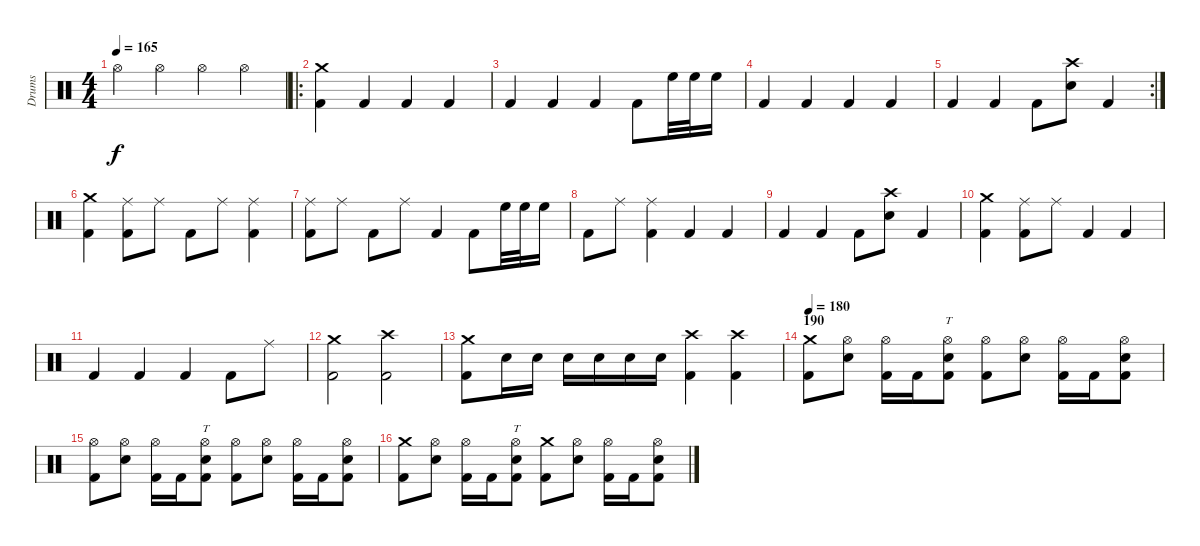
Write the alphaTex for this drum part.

\track ("Drums" "Drums") {instrument percussion}
\staff {score}
\articulation defaults
\ts (4 4)
\tempo 165
\clef neutral
\ks c "Hi-Hat (open)".4{dy f} "Hi-Hat (open)".4 "Hi-Hat (open)".4 "Hi-Hat (open)".4
|
\ro
("Crash medium (hit)" "Kick (hit) 2").4 "Kick (hit) 2".4 "Kick (hit) 2".4 "Kick (hit) 2".4 |
"Kick (hit) 2".4 "Kick (hit) 2".4 "Kick (hit) 2".4 "Kick (hit) 2".8 "High Floor Tom (hit)".32 "High Floor Tom (hit)".32 "High Floor Tom (hit)".16 |
"Kick (hit) 2".4 "Kick (hit) 2".4 "Kick (hit) 2".4 "Kick (hit) 2".4 |
\rc 2 "Kick (hit) 2".4 "Kick (hit) 2".4 "Kick (hit) 2".8
("Crash high (hit)" "Electric Snare (hit)").8 "Kick (hit) 2".4 |
("Crash medium (hit)" "Kick (hit) 2").4 ("Ride (middle)" "Kick (hit) 2").8 "Ride (middle)".8 "Kick (hit) 2".8 "Ride (middle)".8 ("Ride (middle)" "Kick (hit) 2").4 |
("Ride (middle)" "Kick (hit) 2").8 "Ride (middle)".8 "Kick (hit) 2".8 "Ride (middle)".8 "Kick (hit) 2".4 "Kick (hit) 2".8 "High Floor Tom (hit)".32 "High Floor Tom (hit)".32 "High Floor Tom (hit)".16 |
"Kick (hit) 2".8 "Ride (middle)".8 ("Ride (middle)" "Kick (hit) 2").4 "Kick (hit) 2".4 "Kick (hit) 2".4 |
"Kick (hit) 2".4 "Kick (hit) 2".4 "Kick (hit) 2".8 ("Crash high (hit)" "Electric Snare (hit)").8 "Kick (hit) 2".4 |
("Crash medium (hit)" "Kick (hit) 2").4 ("Ride (middle)" "Kick (hit) 2").8 "Ride (middle)".8 "Kick (hit) 2".4 "Kick (hit) 2".4 |
"Kick (hit) 2".4 "Kick (hit) 2".4 "Kick (hit) 2".4 "Kick (hit) 2".8 "Ride (middle)".8 |
("Crash medium (hit)" "Kick (hit) 2").2 ("Crash high (hit)" "Kick (hit) 2").2 |
("Crash medium (hit)" "Kick (hit) 2").8 "Electric Snare (hit)".16 "Electric Snare (hit)".16 "Electric Snare (hit)".16 "Electric Snare (hit)".16 "Electric Snare (hit)".16 "Electric Snare (hit)".16 ("Crash high (hit)" "Kick (hit) 2").4 ("Crash high (hit)" "Kick (hit) 2").4 |
\section ("" "190")
\tempo 180
("Crash medium (hit)" "Kick (hit) 2").8 ("Hi-Hat (open)" "Electric Snare (hit)").8 ("Hi-Hat (open)" "Kick (hit) 2").16 "Kick (hit) 2".16 ("Hi-Hat (open)" "Electric Snare (hit)" "Kick (hit) 2").8{tt} ("Hi-Hat (open)" "Kick (hit) 2").8 ("Hi-Hat (open)" "Electric Snare (hit)").8 ("Hi-Hat (open)" "Kick (hit) 2").16 "Kick (hit) 2".16 ("Hi-Hat (open)" "Electric Snare (hit)" "Kick (hit) 2").8 |
("Hi-Hat (open)" "Kick (hit) 2").8 ("Hi-Hat (open)" "Electric Snare (hit)").8 ("Hi-Hat (open)" "Kick (hit) 2").16 "Kick (hit) 2".16 ("Hi-Hat (open)" "Electric Snare (hit)" "Kick (hit) 2").8{tt} ("Hi-Hat (open)" "Kick (hit) 2").8 ("Hi-Hat (open)" "Electric Snare (hit)").8 ("Hi-Hat (open)" "Kick (hit) 2").16 "Kick (hit) 2".16 ("Hi-Hat (open)" "Electric Snare (hit)" "Kick (hit) 2").8 |
("Crash medium (hit)" "Kick (hit) 2").8 ("Hi-Hat (open)" "Electric Snare (hit)").8 ("Hi-Hat (open)" "Kick (hit) 2").16 "Kick (hit) 2".16 ("Hi-Hat (open)" "Electric Snare (hit)" "Kick (hit) 2").8{tt} ("Crash medium (hit)" "Kick (hit) 2").8 ("Hi-Hat (open)" "Electric Snare (hit)").8 ("Hi-Hat (open)" "Kick (hit) 2").16 "Kick (hit) 2".16 ("Hi-Hat (open)" "Electric Snare (hit)" "Kick (hit) 2").8
